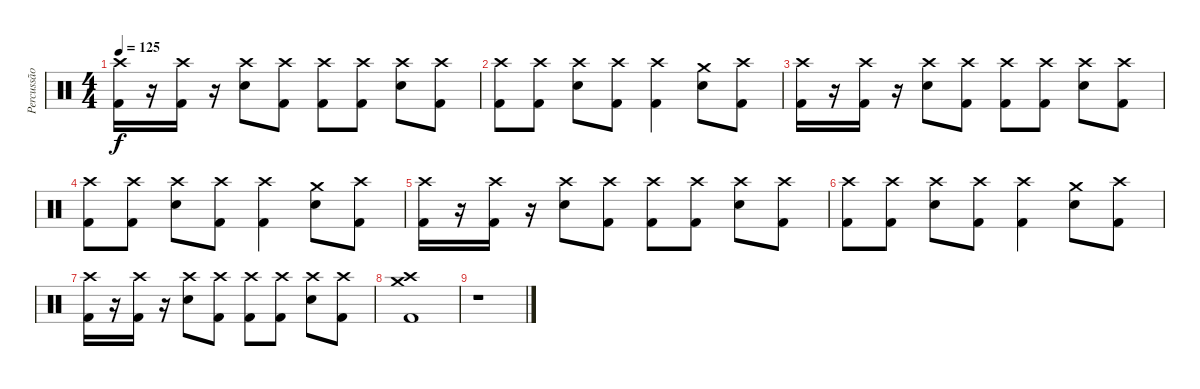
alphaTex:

\track ("Percussão" "Percussão") {instrument percussion}
\staff {score}
\articulation defaults
\ts (4 4)
\tempo 125
\clef neutral
\ks c
("Crash high (hit)" "Kick (hit) 2").16{dy f} r.16 ("Crash high (hit)" "Kick (hit) 2").16 r.16 ("Crash high (hit)" "Electric Snare (hit)").8 ("Crash high (hit)" "Kick (hit) 2").8 ("Crash high (hit)" "Kick (hit) 2").8 ("Crash high (hit)" "Kick (hit) 2").8 ("Crash high (hit)" "Electric Snare (hit)").8 ("Crash high (hit)" "Kick (hit) 2").8 |
("Crash high (hit)" "Kick (hit) 2").8 ("Crash high (hit)" "Kick (hit) 2").8 ("Crash high (hit)" "Electric Snare (hit)").8 ("Crash high (hit)" "Kick (hit) 2").8 ("Crash high (hit)" "Kick (hit) 2").4 ("Crash medium (hit)" "Electric Snare (hit)").8 ("Crash high (hit)" "Kick (hit) 2").8 |
("Crash high (hit)" "Kick (hit) 2").16 r.16 ("Crash high (hit)" "Kick (hit) 2").16 r.16 ("Crash high (hit)" "Electric Snare (hit)").8 ("Crash high (hit)" "Kick (hit) 2").8 ("Crash high (hit)" "Kick (hit) 2").8 ("Crash high (hit)" "Kick (hit) 2").8 ("Crash high (hit)" "Electric Snare (hit)").8 ("Crash high (hit)" "Kick (hit) 2").8 |
("Crash high (hit)" "Kick (hit) 2").8 ("Crash high (hit)" "Kick (hit) 2").8 ("Crash high (hit)" "Electric Snare (hit)").8 ("Crash high (hit)" "Kick (hit) 2").8 ("Crash high (hit)" "Kick (hit) 2").4 ("Crash medium (hit)" "Electric Snare (hit)").8 ("Crash high (hit)" "Kick (hit) 2").8 |
("Crash high (hit)" "Kick (hit) 2").16 r.16 ("Crash high (hit)" "Kick (hit) 2").16 r.16 ("Crash high (hit)" "Electric Snare (hit)").8 ("Crash high (hit)" "Kick (hit) 2").8 ("Crash high (hit)" "Kick (hit) 2").8 ("Crash high (hit)" "Kick (hit) 2").8 ("Crash high (hit)" "Electric Snare (hit)").8 ("Crash high (hit)" "Kick (hit) 2").8 |
("Crash high (hit)" "Kick (hit) 2").8 ("Crash high (hit)" "Kick (hit) 2").8 ("Crash high (hit)" "Electric Snare (hit)").8 ("Crash high (hit)" "Kick (hit) 2").8 ("Crash high (hit)" "Kick (hit) 2").4 ("Crash medium (hit)" "Electric Snare (hit)").8 ("Crash high (hit)" "Kick (hit) 2").8 |
("Crash high (hit)" "Kick (hit) 2").16 r.16 ("Crash high (hit)" "Kick (hit) 2").16 r.16 ("Crash high (hit)" "Electric Snare (hit)").8 ("Crash high (hit)" "Kick (hit) 2").8 ("Crash high (hit)" "Kick (hit) 2").8 ("Crash high (hit)" "Kick (hit) 2").8 ("Crash high (hit)" "Electric Snare (hit)").8 ("Crash high (hit)" "Kick (hit) 2").8 |
("Crash medium (hit)" "Crash high (hit)" "Kick (hit) 2").1 |
r.1
